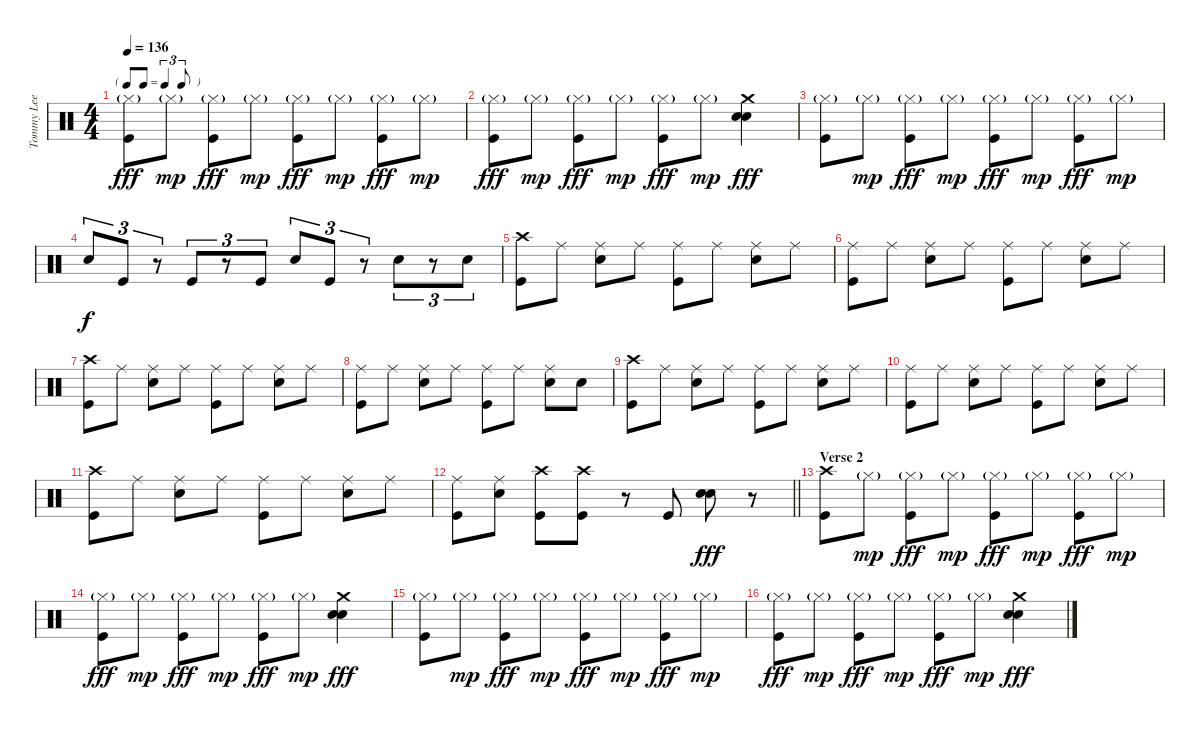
\track ("Tommy Lee" "Tommy Lee") {instrument percussion}
\staff {score}
\articulation defaults
\ts (4 4)
\tf triplet8th
\tempo 136
\clef neutral
\ks c
("Hi-Hat (closed)"{g} "Kick (hit)").8{dy fff} "Hi-Hat (closed)"{g}.8{dy mp} ("Hi-Hat (closed)"{g} "Kick (hit)").8{dy fff} "Hi-Hat (closed)"{g}.8{dy mp} ("Hi-Hat (closed)"{g} "Kick (hit)").8{dy fff} "Hi-Hat (closed)"{g}.8{dy mp} ("Hi-Hat (closed)"{g} "Kick (hit)").8{dy fff} "Hi-Hat (closed)"{g}.8{dy mp} |
("Hi-Hat (closed)"{g} "Kick (hit)").8{dy fff} "Hi-Hat (closed)"{g}.8{dy mp} ("Hi-Hat (closed)"{g} "Kick (hit)").8{dy fff} "Hi-Hat (closed)"{g}.8{dy mp} ("Hi-Hat (closed)"{g} "Kick (hit)").8{dy fff} "Hi-Hat (closed)"{g}.8{dy mp} ("Crash medium (hit)" "Snare (hit) 2" "Snare (hit) 2").4{dy fff} |
("Hi-Hat (closed)"{g} "Kick (hit)").8 "Hi-Hat (closed)"{g}.8{dy mp} ("Hi-Hat (closed)"{g} "Kick (hit)").8{dy fff} "Hi-Hat (closed)"{g}.8{dy mp} ("Hi-Hat (closed)"{g} "Kick (hit)").8{dy fff} "Hi-Hat (closed)"{g}.8{dy mp} ("Hi-Hat (closed)"{g} "Kick (hit)").8{dy fff} "Hi-Hat (closed)"{g}.8{dy mp} |
"Snare (hit) 2".8{tu (3 2) dy f} "Kick (hit)".8{tu (3 2)} r.8{tu (3 2)} "Kick (hit)".8{tu (3 2)} r.8{tu (3 2)} "Kick (hit)".8{tu (3 2)} "Snare (hit) 2".8{tu (3 2)} "Kick (hit)".8{tu (3 2)} r.8{tu (3 2)} "Snare (hit) 2".8{tu (3 2)} r.8{tu (3 2)} "Snare (hit) 2".8{tu (3 2)} |
("Crash high (hit)" "Kick (hit)").8 "Ride (middle)".8 ("Ride (middle)" "Snare (hit) 2").8 "Ride (middle)".8 ("Ride (middle)" "Kick (hit)").8 "Ride (middle)".8 ("Ride (middle)" "Snare (hit) 2").8 "Ride (middle)".8 |
("Ride (middle)" "Kick (hit)").8 "Ride (middle)".8 ("Ride (middle)" "Snare (hit) 2").8 "Ride (middle)".8 ("Ride (middle)" "Kick (hit)").8 "Ride (middle)".8 ("Ride (middle)" "Snare (hit) 2").8 "Ride (middle)".8 |
("Crash high (hit)" "Kick (hit)").8 "Ride (middle)".8 ("Ride (middle)" "Snare (hit) 2").8 "Ride (middle)".8 ("Ride (middle)" "Kick (hit)").8 "Ride (middle)".8 ("Ride (middle)" "Snare (hit) 2").8 "Ride (middle)".8 |
("Ride (middle)" "Kick (hit)").8 "Ride (middle)".8 ("Ride (middle)" "Snare (hit) 2").8 "Ride (middle)".8 ("Ride (middle)" "Kick (hit)").8 "Ride (middle)".8 ("Ride (middle)" "Snare (hit) 2").8 "Snare (hit) 2".8 |
("Crash high (hit)" "Kick (hit)").8 "Ride (middle)".8 ("Ride (middle)" "Snare (hit) 2").8 "Ride (middle)".8 ("Ride (middle)" "Kick (hit)").8 "Ride (middle)".8 ("Ride (middle)" "Snare (hit) 2").8 "Ride (middle)".8 |
("Ride (middle)" "Kick (hit)").8 "Ride (middle)".8 ("Ride (middle)" "Snare (hit) 2").8 "Ride (middle)".8 ("Ride (middle)" "Kick (hit)").8 "Ride (middle)".8 ("Ride (middle)" "Snare (hit) 2").8 "Ride (middle)".8 |
("Crash high (hit)" "Kick (hit)").8 "Ride (middle)".8 ("Ride (middle)" "Snare (hit) 2").8 "Ride (middle)".8 ("Ride (middle)" "Kick (hit)").8 "Ride (middle)".8 ("Ride (middle)" "Snare (hit) 2").8 "Ride (middle)".8 |
\barLineRight lightlight
("Ride (middle)" "Kick (hit)").8 ("Ride (middle)" "Snare (hit) 2").8 ("Crash high (hit)" "Kick (hit)").8 ("Crash high (hit)" "Kick (hit)").8 r.8 "Kick (hit)".8 ("Snare (hit) 2" "Snare (hit) 2").8{dy fff} r.8 |
\section ("" "Verse 2")
("Crash high (hit)" "Kick (hit)").8 "Hi-Hat (closed)"{g}.8{dy mp} ("Hi-Hat (closed)"{g} "Kick (hit)").8{dy fff} "Hi-Hat (closed)"{g}.8{dy mp} ("Hi-Hat (closed)"{g} "Kick (hit)").8{dy fff} "Hi-Hat (closed)"{g}.8{dy mp} ("Hi-Hat (closed)"{g} "Kick (hit)").8{dy fff} "Hi-Hat (closed)"{g}.8{dy mp} |
("Hi-Hat (closed)"{g} "Kick (hit)").8{dy fff} "Hi-Hat (closed)"{g}.8{dy mp} ("Hi-Hat (closed)"{g} "Kick (hit)").8{dy fff} "Hi-Hat (closed)"{g}.8{dy mp} ("Hi-Hat (closed)"{g} "Kick (hit)").8{dy fff} "Hi-Hat (closed)"{g}.8{dy mp} ("Crash medium (hit)" "Snare (hit) 2" "Snare (hit) 2").4{dy fff} |
("Hi-Hat (closed)"{g} "Kick (hit)").8 "Hi-Hat (closed)"{g}.8{dy mp} ("Hi-Hat (closed)"{g} "Kick (hit)").8{dy fff} "Hi-Hat (closed)"{g}.8{dy mp} ("Hi-Hat (closed)"{g} "Kick (hit)").8{dy fff} "Hi-Hat (closed)"{g}.8{dy mp} ("Hi-Hat (closed)"{g} "Kick (hit)").8{dy fff} "Hi-Hat (closed)"{g}.8{dy mp} |
("Hi-Hat (closed)"{g} "Kick (hit)").8{dy fff} "Hi-Hat (closed)"{g}.8{dy mp} ("Hi-Hat (closed)"{g} "Kick (hit)").8{dy fff} "Hi-Hat (closed)"{g}.8{dy mp} ("Hi-Hat (closed)"{g} "Kick (hit)").8{dy fff} "Hi-Hat (closed)"{g}.8{dy mp} ("Crash medium (hit)" "Snare (hit) 2" "Snare (hit) 2").4{dy fff}
